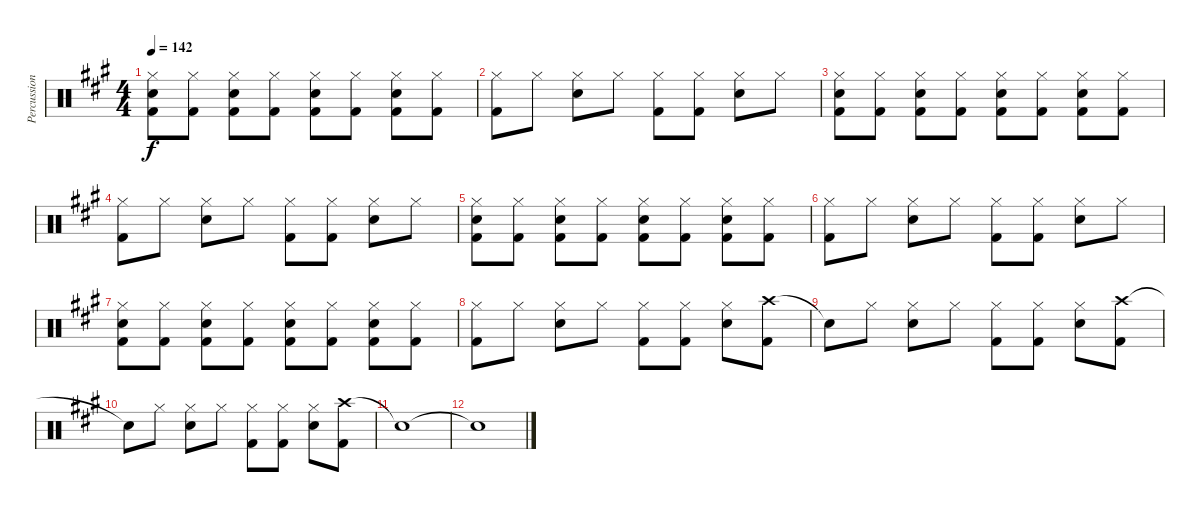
\track ("Percussion" "Percussion") {instrument percussion}
\staff {score}
\articulation defaults
\ts (4 4)
\tempo 142
\clef neutral
\ks a
("Hi-Hat (closed)" "Snare (hit) 2" "Kick (hit) 2").8{dy f} ("Hi-Hat (closed)" "Kick (hit) 2").8 ("Hi-Hat (closed)" "Snare (hit) 2" "Kick (hit) 2").8 ("Hi-Hat (closed)" "Kick (hit) 2").8 ("Hi-Hat (closed)" "Snare (hit) 2" "Kick (hit) 2").8 ("Hi-Hat (closed)" "Kick (hit) 2").8 ("Hi-Hat (closed)" "Snare (hit) 2" "Kick (hit) 2").8 ("Hi-Hat (closed)" "Kick (hit) 2").8 |
("Hi-Hat (closed)" "Kick (hit) 2").8 "Hi-Hat (closed)".8 ("Hi-Hat (closed)" "Snare (hit) 2").8 "Hi-Hat (closed)".8 ("Hi-Hat (closed)" "Kick (hit) 2").8 ("Hi-Hat (closed)" "Kick (hit) 2").8 ("Hi-Hat (closed)" "Snare (hit) 2").8 "Hi-Hat (closed)".8 |
("Hi-Hat (closed)" "Snare (hit) 2" "Kick (hit) 2").8 ("Hi-Hat (closed)" "Kick (hit) 2").8 ("Hi-Hat (closed)" "Snare (hit) 2" "Kick (hit) 2").8 ("Hi-Hat (closed)" "Kick (hit) 2").8 ("Hi-Hat (closed)" "Snare (hit) 2" "Kick (hit) 2").8 ("Hi-Hat (closed)" "Kick (hit) 2").8 ("Hi-Hat (closed)" "Snare (hit) 2" "Kick (hit) 2").8 ("Hi-Hat (closed)" "Kick (hit) 2").8 |
("Hi-Hat (closed)" "Kick (hit) 2").8 "Hi-Hat (closed)".8 ("Hi-Hat (closed)" "Snare (hit) 2").8 "Hi-Hat (closed)".8 ("Hi-Hat (closed)" "Kick (hit) 2").8 ("Hi-Hat (closed)" "Kick (hit) 2").8 ("Hi-Hat (closed)" "Snare (hit) 2").8 "Hi-Hat (closed)".8 |
("Hi-Hat (closed)" "Snare (hit) 2" "Kick (hit) 2").8 ("Hi-Hat (closed)" "Kick (hit) 2").8 ("Hi-Hat (closed)" "Snare (hit) 2" "Kick (hit) 2").8 ("Hi-Hat (closed)" "Kick (hit) 2").8 ("Hi-Hat (closed)" "Snare (hit) 2" "Kick (hit) 2").8 ("Hi-Hat (closed)" "Kick (hit) 2").8 ("Hi-Hat (closed)" "Snare (hit) 2" "Kick (hit) 2").8 ("Hi-Hat (closed)" "Kick (hit) 2").8 |
("Hi-Hat (closed)" "Kick (hit) 2").8 "Hi-Hat (closed)".8 ("Hi-Hat (closed)" "Snare (hit) 2").8 "Hi-Hat (closed)".8 ("Hi-Hat (closed)" "Kick (hit) 2").8 ("Hi-Hat (closed)" "Kick (hit) 2").8 ("Hi-Hat (closed)" "Snare (hit) 2").8 "Hi-Hat (closed)".8 |
("Hi-Hat (closed)" "Snare (hit) 2" "Kick (hit) 2").8 ("Hi-Hat (closed)" "Kick (hit) 2").8 ("Hi-Hat (closed)" "Snare (hit) 2" "Kick (hit) 2").8 ("Hi-Hat (closed)" "Kick (hit) 2").8 ("Hi-Hat (closed)" "Snare (hit) 2" "Kick (hit) 2").8 ("Hi-Hat (closed)" "Kick (hit) 2").8 ("Hi-Hat (closed)" "Snare (hit) 2" "Kick (hit) 2").8 ("Hi-Hat (closed)" "Kick (hit) 2").8 |
("Hi-Hat (closed)" "Kick (hit) 2").8 "Hi-Hat (closed)".8 ("Hi-Hat (closed)" "Snare (hit) 2").8 "Hi-Hat (closed)".8 ("Hi-Hat (closed)" "Kick (hit) 2").8 ("Hi-Hat (closed)" "Kick (hit) 2").8 ("Hi-Hat (closed)" "Snare (hit) 2").8 ("Crash high (hit)" "Kick (hit) 2").8 |
"Snare (hit)"{t}.8 "Hi-Hat (closed)".8 ("Hi-Hat (closed)" "Snare (hit) 2").8 "Hi-Hat (closed)".8 ("Hi-Hat (closed)" "Kick (hit) 2").8 ("Hi-Hat (closed)" "Kick (hit) 2").8 ("Hi-Hat (closed)" "Snare (hit) 2").8 ("Crash high (hit)" "Kick (hit) 2").8 |
"Snare (hit)"{t}.8 "Hi-Hat (closed)".8 ("Hi-Hat (closed)" "Snare (hit) 2").8 "Hi-Hat (closed)".8 ("Hi-Hat (closed)" "Kick (hit) 2").8 ("Hi-Hat (closed)" "Kick (hit) 2").8 ("Hi-Hat (closed)" "Snare (hit) 2").8 ("Crash high (hit)" "Kick (hit) 2").8 |
"Snare (hit)"{t}.1 |
"Snare (hit)"{t}.1
